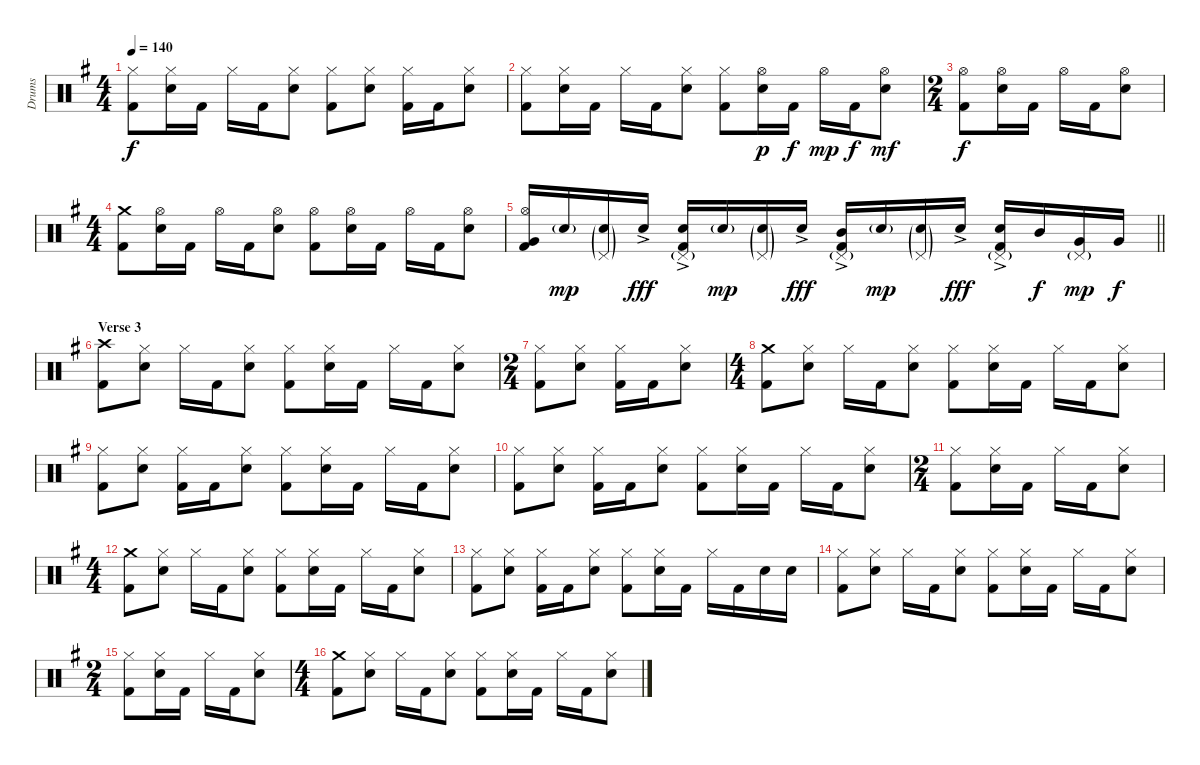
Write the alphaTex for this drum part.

\track ("Drums" "Drums") {instrument percussion}
\staff {score}
\articulation defaults
\ts (4 4)
\tempo 140
\clef neutral
\ks g
("Hi-Hat (closed)" "Kick (hit) 2").8{dy f} ("Hi-Hat (closed)" "Electric Snare (hit)").16 "Kick (hit) 2".16 "Hi-Hat (closed)".16 "Kick (hit) 2".16 ("Hi-Hat (closed)" "Electric Snare (hit)").8 ("Hi-Hat (closed)" "Kick (hit) 2").8 ("Hi-Hat (closed)" "Electric Snare (hit)").8 ("Hi-Hat (closed)" "Kick (hit) 2").16 "Kick (hit) 2".16 ("Hi-Hat (closed)" "Electric Snare (hit)").8 |
("Hi-Hat (closed)" "Kick (hit) 2").8 ("Hi-Hat (closed)" "Electric Snare (hit)").16 "Kick (hit) 2".16 "Hi-Hat (closed)".16 "Kick (hit) 2".16 ("Hi-Hat (closed)" "Electric Snare (hit)").8 ("Hi-Hat (closed)" "Kick (hit) 2").8 ("Hi-Hat (open)" "Electric Snare (hit)").16{dy p} "Kick (hit) 2".16{dy f} "Hi-Hat (open)".16{dy mp} "Kick (hit) 2".16{dy f} ("Hi-Hat (open)" "Electric Snare (hit)").8{dy mf} |
\ts (2 4)
("Hi-Hat (open)" "Kick (hit) 2").8{dy f} ("Hi-Hat (open)" "Electric Snare (hit)").16 "Kick (hit) 2".16 "Hi-Hat (open)".16 "Kick (hit) 2".16 ("Hi-Hat (open)" "Electric Snare (hit)").8 |
\ts (4 4)
("Crash medium (hit)" "Kick (hit) 2").8 ("Hi-Hat (open)" "Electric Snare (hit)").16 "Kick (hit) 2".16 "Hi-Hat (open)".16 "Kick (hit) 2".16 ("Hi-Hat (open)" "Electric Snare (hit)").8 ("Hi-Hat (open)" "Kick (hit) 2").8 ("Hi-Hat (open)" "Electric Snare (hit)").16 "Kick (hit) 2".16 "Hi-Hat (open)".16 "Kick (hit) 2".16 ("Hi-Hat (open)" "Electric Snare (hit)").8 |
\barLineRight lightlight
("Hi-Hat (open)" "Very Low Tom (hit)" "Kick (hit) 2").16 "Electric Snare (hit)"{g}.16{dy mp} ("Pedal Hi-Hat (hit)"{g} "Electric Snare (hit)"{g}).16 "Electric Snare (hit)"{ac}.16{dy fff} ("Pedal Hi-Hat (hit)"{g} "Electric Snare (hit)"{ac} "Kick (hit) 2").16 "Electric Snare (hit)"{g}.16{dy mp} ("Pedal Hi-Hat (hit)"{g} "Electric Snare (hit)"{g}).16 "Electric Snare (hit)"{ac}.16{dy fff} ("Pedal Hi-Hat (hit)"{g} "Mid Tom (hit)"{ac} "Kick (hit) 2").16 "Electric Snare (hit)"{g}.16{dy mp} ("Pedal Hi-Hat (hit)"{g} "Electric Snare (hit)"{g}).16 "Electric Snare (hit)"{ac}.16{dy fff} ("Pedal Hi-Hat (hit)"{g} "Electric Snare (hit)"{ac} "Kick (hit) 2").16 "Mid Tom (hit)".16{dy f} ("Pedal Hi-Hat (hit)"{g} "Very Low Tom (hit)").16{dy mp} "Very Low Tom (hit)".16{dy f} |
\section ("" "Verse 3")
("Crash high (hit)" "Kick (hit) 2").8 ("Hi-Hat (closed)" "Electric Snare (hit)").8 "Hi-Hat (closed)".16 "Kick (hit) 2".16 ("Hi-Hat (closed)" "Electric Snare (hit)").8 ("Hi-Hat (closed)" "Kick (hit) 2").8 ("Hi-Hat (closed)" "Electric Snare (hit)").16 "Kick (hit) 2".16 "Hi-Hat (closed)".16 "Kick (hit) 2".16 ("Hi-Hat (closed)" "Electric Snare (hit)").8 |
\ts (2 4)
("Hi-Hat (closed)" "Kick (hit) 2").8 ("Hi-Hat (closed)" "Electric Snare (hit)").8 ("Hi-Hat (closed)" "Kick (hit) 2").16 "Kick (hit) 2".16 ("Hi-Hat (closed)" "Electric Snare (hit)").8 |
\ts (4 4)
("Crash medium (hit)" "Kick (hit) 2").8 ("Hi-Hat (closed)" "Electric Snare (hit)").8 "Hi-Hat (closed)".16 "Kick (hit) 2".16 ("Hi-Hat (closed)" "Electric Snare (hit)").8 ("Hi-Hat (closed)" "Kick (hit) 2").8 ("Hi-Hat (closed)" "Electric Snare (hit)").16 "Kick (hit) 2".16 "Hi-Hat (closed)".16 "Kick (hit) 2".16 ("Hi-Hat (closed)" "Electric Snare (hit)").8 |
("Hi-Hat (closed)" "Kick (hit) 2").8 ("Hi-Hat (closed)" "Electric Snare (hit)").8 ("Hi-Hat (closed)" "Kick (hit) 2").16 "Kick (hit) 2".16 ("Hi-Hat (closed)" "Electric Snare (hit)").8 ("Hi-Hat (closed)" "Kick (hit) 2").8 ("Hi-Hat (closed)" "Electric Snare (hit)").16 "Kick (hit) 2".16 "Hi-Hat (closed)".16 "Kick (hit) 2".16 ("Hi-Hat (closed)" "Electric Snare (hit)").8 |
("Hi-Hat (closed)" "Kick (hit) 2").8 ("Hi-Hat (closed)" "Electric Snare (hit)").8 ("Hi-Hat (closed)" "Kick (hit) 2").16 "Kick (hit) 2".16 ("Hi-Hat (closed)" "Electric Snare (hit)").8 ("Hi-Hat (closed)" "Kick (hit) 2").8 ("Hi-Hat (closed)" "Electric Snare (hit)").16 "Kick (hit) 2".16 "Hi-Hat (closed)".16 "Kick (hit) 2".16 ("Hi-Hat (closed)" "Electric Snare (hit)").8 |
\ts (2 4)
("Hi-Hat (closed)" "Kick (hit) 2").8 ("Hi-Hat (closed)" "Electric Snare (hit)").16 "Kick (hit) 2".16 "Hi-Hat (closed)".16 "Kick (hit) 2".16 ("Hi-Hat (closed)" "Electric Snare (hit)").8 |
\ts (4 4)
("Crash medium (hit)" "Kick (hit) 2").8 ("Hi-Hat (closed)" "Electric Snare (hit)").8 "Hi-Hat (closed)".16 "Kick (hit) 2".16 ("Hi-Hat (closed)" "Electric Snare (hit)").8 ("Hi-Hat (closed)" "Kick (hit) 2").8 ("Hi-Hat (closed)" "Electric Snare (hit)").16 "Kick (hit) 2".16 "Hi-Hat (closed)".16 "Kick (hit) 2".16 ("Hi-Hat (closed)" "Electric Snare (hit)").8 |
("Hi-Hat (closed)" "Kick (hit) 2").8 ("Hi-Hat (closed)" "Electric Snare (hit)").8 ("Hi-Hat (closed)" "Kick (hit) 2").16 "Kick (hit) 2".16 ("Hi-Hat (closed)" "Electric Snare (hit)").8 ("Hi-Hat (closed)" "Kick (hit) 2").8 ("Hi-Hat (closed)" "Electric Snare (hit)").16 "Kick (hit) 2".16 "Hi-Hat (closed)".16 "Kick (hit) 2".16 "Electric Snare (hit)".16 "Electric Snare (hit)".16 |
("Hi-Hat (closed)" "Kick (hit) 2").8 ("Hi-Hat (closed)" "Electric Snare (hit)").8 "Hi-Hat (closed)".16 "Kick (hit) 2".16 ("Hi-Hat (closed)" "Electric Snare (hit)").8 ("Hi-Hat (closed)" "Kick (hit) 2").8 ("Hi-Hat (closed)" "Electric Snare (hit)").16 "Kick (hit) 2".16 "Hi-Hat (closed)".16 "Kick (hit) 2".16 ("Hi-Hat (closed)" "Electric Snare (hit)").8 |
\ts (2 4)
("Hi-Hat (closed)" "Kick (hit) 2").8 ("Hi-Hat (closed)" "Electric Snare (hit)").16 "Kick (hit) 2".16 "Hi-Hat (closed)".16 "Kick (hit) 2".16 ("Hi-Hat (closed)" "Electric Snare (hit)").8 |
\ts (4 4)
("Crash medium (hit)" "Kick (hit) 2").8 ("Hi-Hat (closed)" "Electric Snare (hit)").8 "Hi-Hat (closed)".16 "Kick (hit) 2".16 ("Hi-Hat (closed)" "Electric Snare (hit)").8 ("Hi-Hat (closed)" "Kick (hit) 2").8 ("Hi-Hat (closed)" "Electric Snare (hit)").16 "Kick (hit) 2".16 "Hi-Hat (closed)".16 "Kick (hit) 2".16 ("Hi-Hat (closed)" "Electric Snare (hit)").8
